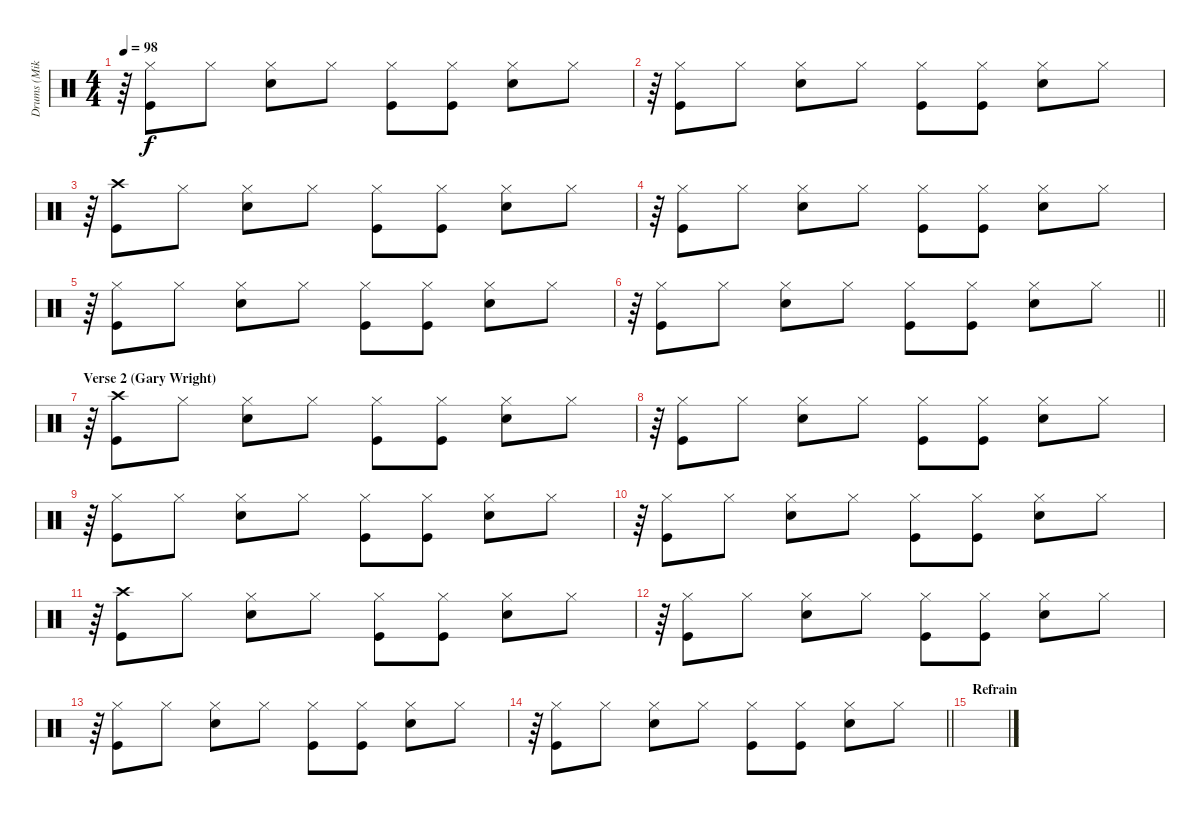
\track ("Drums (Mike Kellie)" "Drums (Mik") {instrument percussion}
\staff {score}
\articulation defaults
\ts (4 4)
\tempo 98
\clef neutral
\ks c
r.64{dy f} ("Hi-Hat (closed)" "Kick (hit)").8 "Hi-Hat (closed)".8 ("Hi-Hat (closed)" "Electric Snare (hit)").8 "Hi-Hat (closed)".8 ("Hi-Hat (closed)" "Kick (hit)").8 ("Hi-Hat (closed)" "Kick (hit)").8 ("Hi-Hat (closed)" "Electric Snare (hit)").8 "Hi-Hat (closed)".8 |
r.64 ("Hi-Hat (closed)" "Kick (hit)").8 "Hi-Hat (closed)".8 ("Hi-Hat (closed)" "Electric Snare (hit)").8 "Hi-Hat (closed)".8 ("Hi-Hat (closed)" "Kick (hit)").8 ("Hi-Hat (closed)" "Kick (hit)").8 ("Hi-Hat (closed)" "Electric Snare (hit)").8 "Hi-Hat (closed)".8 |
r.64 ("Crash high (hit)" "Kick (hit)").8 "Hi-Hat (closed)".8 ("Hi-Hat (closed)" "Electric Snare (hit)").8 "Hi-Hat (closed)".8 ("Hi-Hat (closed)" "Kick (hit)").8 ("Hi-Hat (closed)" "Kick (hit)").8 ("Hi-Hat (closed)" "Electric Snare (hit)").8 "Hi-Hat (closed)".8 |
r.64 ("Hi-Hat (closed)" "Kick (hit)").8 "Hi-Hat (closed)".8 ("Hi-Hat (closed)" "Electric Snare (hit)").8 "Hi-Hat (closed)".8 ("Hi-Hat (closed)" "Kick (hit)").8 ("Hi-Hat (closed)" "Kick (hit)").8 ("Hi-Hat (closed)" "Electric Snare (hit)").8 "Hi-Hat (closed)".8 |
r.64 ("Hi-Hat (closed)" "Kick (hit)").8 "Hi-Hat (closed)".8 ("Hi-Hat (closed)" "Electric Snare (hit)").8 "Hi-Hat (closed)".8 ("Hi-Hat (closed)" "Kick (hit)").8 ("Hi-Hat (closed)" "Kick (hit)").8 ("Hi-Hat (closed)" "Electric Snare (hit)").8 "Hi-Hat (closed)".8 |
\barLineRight lightlight
r.64 ("Hi-Hat (closed)" "Kick (hit)").8 "Hi-Hat (closed)".8 ("Hi-Hat (closed)" "Electric Snare (hit)").8 "Hi-Hat (closed)".8 ("Hi-Hat (closed)" "Kick (hit)").8 ("Hi-Hat (closed)" "Kick (hit)").8 ("Hi-Hat (closed)" "Electric Snare (hit)").8 "Hi-Hat (closed)".8 |
\section ("" "Verse 2 (Gary Wright)")
r.64 ("Crash high (hit)" "Kick (hit)").8 "Hi-Hat (closed)".8 ("Hi-Hat (closed)" "Electric Snare (hit)").8 "Hi-Hat (closed)".8 ("Hi-Hat (closed)" "Kick (hit)").8 ("Hi-Hat (closed)" "Kick (hit)").8 ("Hi-Hat (closed)" "Electric Snare (hit)").8 "Hi-Hat (closed)".8 |
r.64 ("Hi-Hat (closed)" "Kick (hit)").8 "Hi-Hat (closed)".8 ("Hi-Hat (closed)" "Electric Snare (hit)").8 "Hi-Hat (closed)".8 ("Hi-Hat (closed)" "Kick (hit)").8 ("Hi-Hat (closed)" "Kick (hit)").8 ("Hi-Hat (closed)" "Electric Snare (hit)").8 "Hi-Hat (closed)".8 |
r.64 ("Hi-Hat (closed)" "Kick (hit)").8 "Hi-Hat (closed)".8 ("Hi-Hat (closed)" "Electric Snare (hit)").8 "Hi-Hat (closed)".8 ("Hi-Hat (closed)" "Kick (hit)").8 ("Hi-Hat (closed)" "Kick (hit)").8 ("Hi-Hat (closed)" "Electric Snare (hit)").8 "Hi-Hat (closed)".8 |
r.64 ("Hi-Hat (closed)" "Kick (hit)").8 "Hi-Hat (closed)".8 ("Hi-Hat (closed)" "Electric Snare (hit)").8 "Hi-Hat (closed)".8 ("Hi-Hat (closed)" "Kick (hit)").8 ("Hi-Hat (closed)" "Kick (hit)").8 ("Hi-Hat (closed)" "Electric Snare (hit)").8 "Hi-Hat (closed)".8 |
r.64 ("Crash high (hit)" "Kick (hit)").8 "Hi-Hat (closed)".8 ("Hi-Hat (closed)" "Electric Snare (hit)").8 "Hi-Hat (closed)".8 ("Hi-Hat (closed)" "Kick (hit)").8 ("Hi-Hat (closed)" "Kick (hit)").8 ("Hi-Hat (closed)" "Electric Snare (hit)").8 "Hi-Hat (closed)".8 |
r.64 ("Hi-Hat (closed)" "Kick (hit)").8 "Hi-Hat (closed)".8 ("Hi-Hat (closed)" "Electric Snare (hit)").8 "Hi-Hat (closed)".8 ("Hi-Hat (closed)" "Kick (hit)").8 ("Hi-Hat (closed)" "Kick (hit)").8 ("Hi-Hat (closed)" "Electric Snare (hit)").8 "Hi-Hat (closed)".8 |
r.64 ("Hi-Hat (closed)" "Kick (hit)").8 "Hi-Hat (closed)".8 ("Hi-Hat (closed)" "Electric Snare (hit)").8 "Hi-Hat (closed)".8 ("Hi-Hat (closed)" "Kick (hit)").8 ("Hi-Hat (closed)" "Kick (hit)").8 ("Hi-Hat (closed)" "Electric Snare (hit)").8 "Hi-Hat (closed)".8 |
\barLineRight lightlight
r.64 ("Hi-Hat (closed)" "Kick (hit)").8 "Hi-Hat (closed)".8 ("Hi-Hat (closed)" "Electric Snare (hit)").8 "Hi-Hat (closed)".8 ("Hi-Hat (closed)" "Kick (hit)").8 ("Hi-Hat (closed)" "Kick (hit)").8 ("Hi-Hat (closed)" "Electric Snare (hit)").8 "Hi-Hat (closed)".8 |
\section ("" "Refrain")
